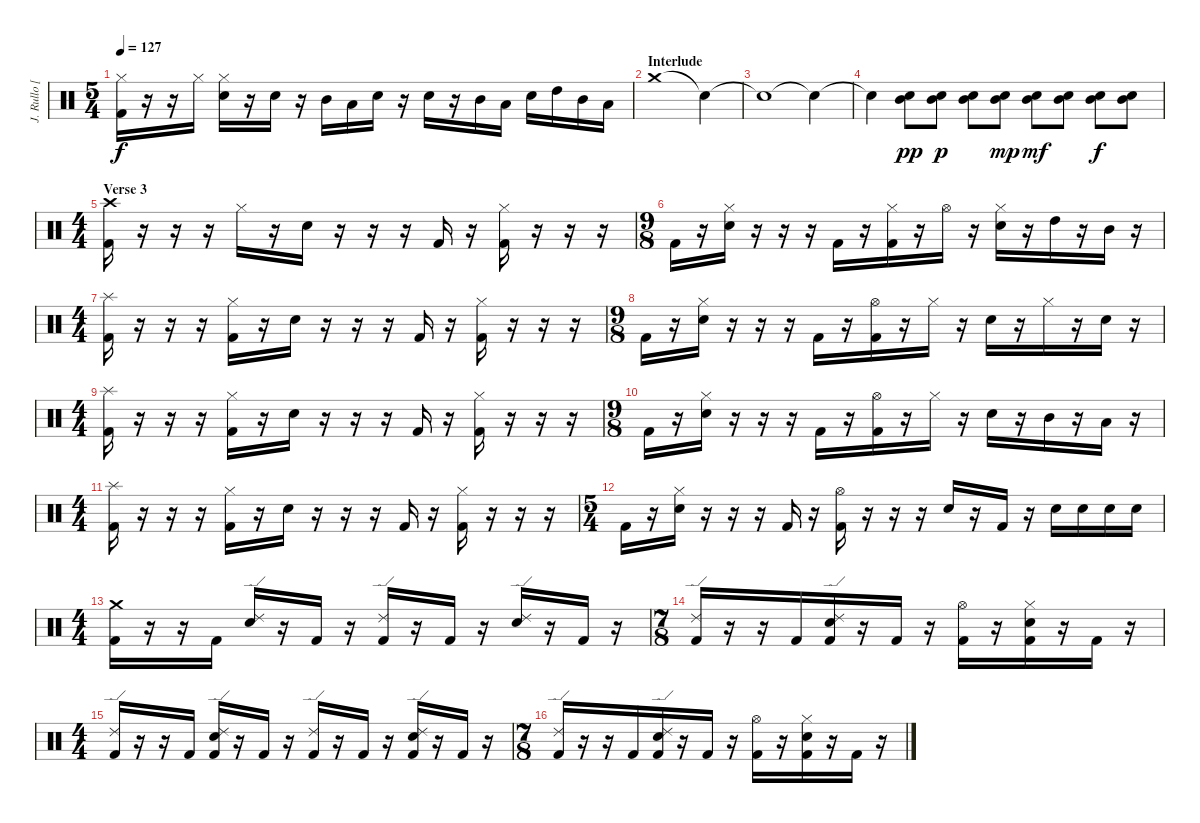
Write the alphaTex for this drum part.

\track ("J. Rullo [Drums]" "J. Rullo [") {instrument percussion}
\staff {score}
\articulation defaults
\ts (5 4)
\tempo 127
\clef neutral
\ks c
("Hi-Hat (closed)" "Kick (hit) 2").16{dy f} r.16 r.16 "Hi-Hat (closed)".16 ("Hi-Hat (closed)" "Electric Snare (hit)").16 r.16 "Electric Snare (hit)".16 r.16 "Mid Tom (hit)".16 "Low Tom (hit)".16 "Electric Snare (hit)".16 r.16 "Electric Snare (hit)".16 r.16 "Mid Tom (hit)".16 "Low Tom (hit)".16 "Electric Snare (hit)".16 "High Tom (hit)".16 "Mid Tom (hit)".16 "Low Tom (hit)".16 |
\section ("" "Interlude")
"Crash medium (hit)".1 "Snare (hit)"{t}.4 |
"Snare (hit)"{t}.1 "Snare (hit)"{t}.4 |
"Snare (hit)"{t}.4 ("Mid Tom (hit)" "Electric Snare (hit)").8{dy pp} ("Mid Tom (hit)" "Electric Snare (hit)").8{dy p} ("Mid Tom (hit)" "Electric Snare (hit)").8 ("Mid Tom (hit)" "Electric Snare (hit)").8{dy mp} ("Mid Tom (hit)" "Electric Snare (hit)").8{dy mf} ("Mid Tom (hit)" "Electric Snare (hit)").8 ("Mid Tom (hit)" "Electric Snare (hit)").8{dy f} ("Mid Tom (hit)" "Electric Snare (hit)").8 |
\ts (4 4)
\section ("" "Verse 3")
("Crash high (hit)" "Kick (hit) 2").16 r.16 r.16 r.16 "Hi-Hat (closed)".16 r.16 "Electric Snare (hit)".16 r.16 r.16 r.16 "Kick (hit) 2".16 r.16 ("Hi-Hat (closed)" "Kick (hit) 2").16 r.16 r.16 r.16 |
\ts (9 8)
"Kick (hit) 2".16 r.16 ("Hi-Hat (closed)" "Electric Snare (hit)").16 r.16 r.16 r.16 "Kick (hit) 2".16 r.16 ("Hi-Hat (closed)" "Kick (hit) 2").16 r.16 "Hi-Hat (open)".16 r.16 ("Hi-Hat (closed)" "Electric Snare (hit)").16 r.16 "High Tom (hit)".16 r.16 "Mid Tom (hit)".16 r.16 |
\ts (4 4)
("Splash (hit)" "Kick (hit) 2").16 r.16 r.16 r.16 ("Hi-Hat (closed)" "Kick (hit) 2").16 r.16 "Electric Snare (hit)".16 r.16 r.16 r.16 "Kick (hit) 2".16 r.16 ("Hi-Hat (closed)" "Kick (hit) 2").16 r.16 r.16 r.16 |
\ts (9 8)
"Kick (hit) 2".16 r.16 ("Hi-Hat (closed)" "Electric Snare (hit)").16 r.16 r.16 r.16 "Kick (hit) 2".16 r.16 ("Hi-Hat (open)" "Kick (hit) 2").16 r.16 "Hi-Hat (closed)".16 r.16 "Electric Snare (hit)".16 r.16 "Hi-Hat (closed)".16 r.16 "Electric Snare (hit)".16 r.16 |
\ts (4 4)
("Splash (hit)" "Kick (hit) 2").16 r.16 r.16 r.16 ("Hi-Hat (closed)" "Kick (hit) 2").16 r.16 "Electric Snare (hit)".16 r.16 r.16 r.16 "Kick (hit) 2".16 r.16 ("Hi-Hat (closed)" "Kick (hit) 2").16 r.16 r.16 r.16 |
\ts (9 8)
"Kick (hit) 2".16 r.16 ("Hi-Hat (closed)" "Electric Snare (hit)").16 r.16 r.16 r.16 "Kick (hit) 2".16 r.16 ("Hi-Hat (open)" "Kick (hit) 2").16 r.16 "Hi-Hat (closed)".16 r.16 "Electric Snare (hit)".16 r.16 "Mid Tom (hit)".16 r.16 "Low Tom (hit)".16 r.16 |
\ts (4 4)
("Splash (hit)" "Kick (hit) 2").16 r.16 r.16 r.16 ("Hi-Hat (closed)" "Kick (hit) 2").16 r.16 "Electric Snare (hit)".16 r.16 r.16 r.16 "Kick (hit) 2".16 r.16 ("Hi-Hat (closed)" "Kick (hit) 2").16 r.16 r.16 r.16 |
\ts (5 4)
"Kick (hit) 2".16 r.16 ("Hi-Hat (closed)" "Electric Snare (hit)").16 r.16 r.16 r.16 "Kick (hit) 2".16 r.16 ("Hi-Hat (open)" "Kick (hit) 2").16 r.16 r.16 r.16 "Electric Snare (hit)".16 r.16 "Kick (hit) 2".16 r.16 "Electric Snare (hit)".16 "Electric Snare (hit)".16 "Electric Snare (hit)".16 "Electric Snare (hit)".16 |
\ts (4 4)
("Crash medium (hit)" "Kick (hit) 2").16 r.16 r.16 "Kick (hit) 2".16 ("Ride (edge) 2" "Electric Snare (hit)").16 r.16 "Kick (hit) 2".16 r.16 ("Ride (edge) 2" "Kick (hit) 2").16 r.16 "Kick (hit) 2".16 r.16 ("Ride (edge) 2" "Electric Snare (hit)").16 r.16 "Kick (hit) 2".16 r.16 |
\ts (7 8)
("Ride (edge) 2" "Kick (hit) 2").16 r.16 r.16 "Kick (hit) 2".16 ("Ride (edge) 2" "Electric Snare (hit)" "Kick (hit) 2").16 r.16 "Kick (hit) 2".16 r.16 ("Hi-Hat (open)" "Kick (hit) 2").16 r.16 ("Hi-Hat (closed)" "Electric Snare (hit)" "Kick (hit) 2").16 r.16 "Kick (hit) 2".16 r.16 |
\ts (4 4)
("Ride (edge) 2" "Kick (hit) 2").16 r.16 r.16 "Kick (hit) 2".16 ("Ride (edge) 2" "Electric Snare (hit)" "Kick (hit) 2").16 r.16 "Kick (hit) 2".16 r.16 ("Ride (edge) 2" "Kick (hit) 2").16 r.16 "Kick (hit) 2".16 r.16 ("Ride (edge) 2" "Electric Snare (hit)" "Kick (hit) 2").16 r.16 "Kick (hit) 2".16 r.16 |
\ts (7 8)
("Ride (edge) 2" "Kick (hit) 2").16 r.16 r.16 "Kick (hit) 2".16 ("Ride (edge) 2" "Electric Snare (hit)" "Kick (hit) 2").16 r.16 "Kick (hit) 2".16 r.16 ("Hi-Hat (open)" "Kick (hit) 2").16 r.16 ("Hi-Hat (closed)" "Electric Snare (hit)" "Kick (hit) 2").16 r.16 "Kick (hit) 2".16 r.16
